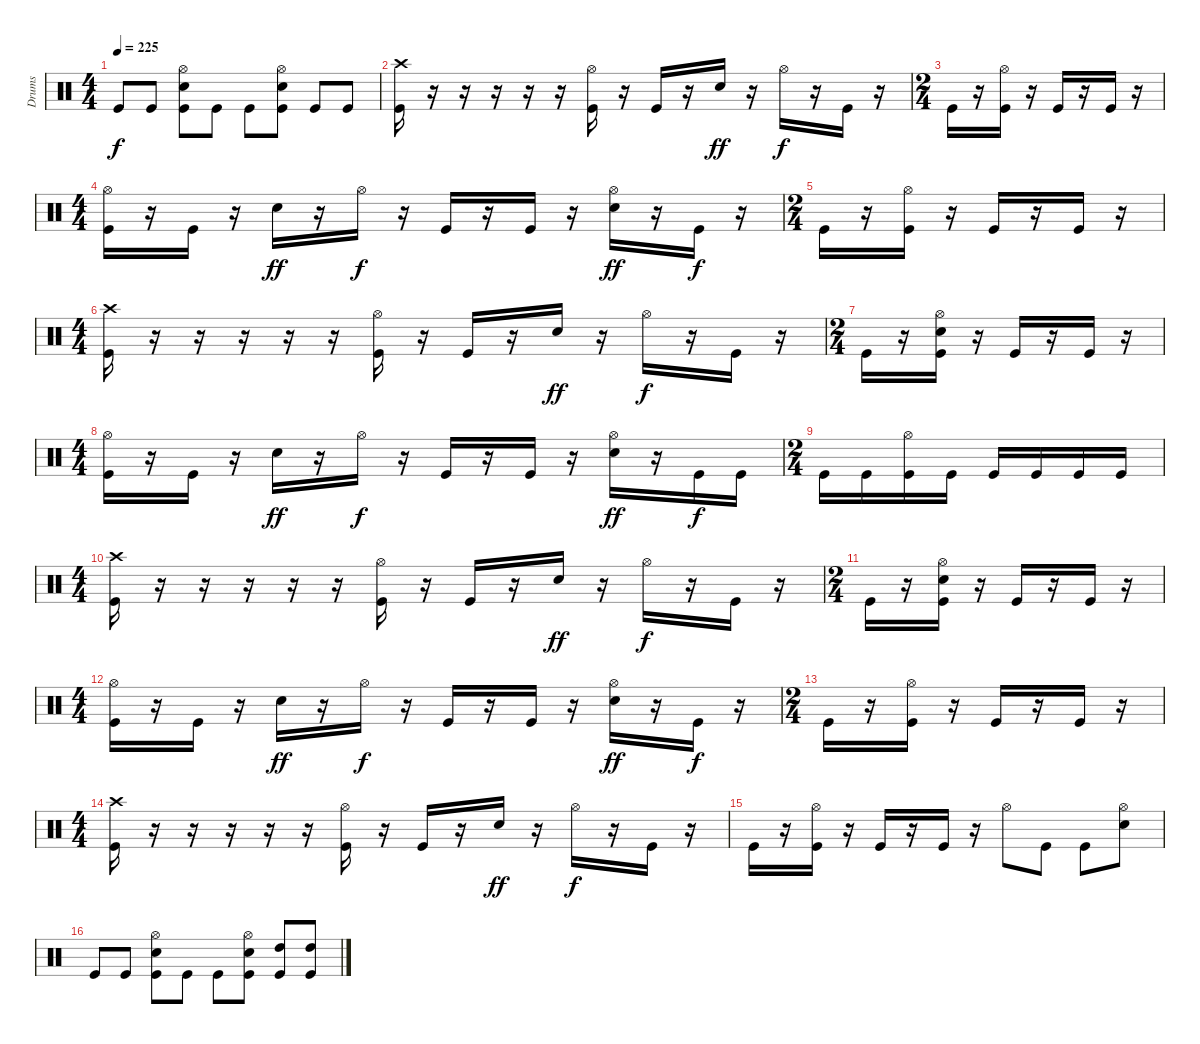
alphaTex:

\track ("Drums" "Drums") {instrument percussion}
\staff {score}
\articulation defaults
\ts (4 4)
\tempo 225
\clef neutral
\ks c "Kick (hit)".8{dy f} "Kick (hit)".8
("Kick (hit)" "Snare (hit) 2" "Hi-Hat (open)").8 "Kick (hit)".8 "Kick (hit)".8 ("Kick (hit)" "Snare (hit) 2" "Hi-Hat (open)").8 "Kick (hit)".8 "Kick (hit)".8 |
("Kick (hit)" "Crash high (hit)").16 r.16 r.16 r.16 r.16 r.16 ("Kick (hit)" "Hi-Hat (open)").16 r.16 "Kick (hit)".16 r.16 "Snare (hit) 2".16{dy ff} r.16 "Hi-Hat (open)".16{dy f} r.16 "Kick (hit)".16 r.16 |
\ts (2 4)
"Kick (hit)".16 r.16 ("Kick (hit)" "Hi-Hat (open)").16 r.16 "Kick (hit)".16 r.16 "Kick (hit)".16 r.16 |
\ts (4 4)
("Kick (hit)" "Hi-Hat (open)").16 r.16 "Kick (hit)".16 r.16 "Snare (hit) 2".16{dy ff} r.16 "Hi-Hat (open)".16{dy f} r.16 "Kick (hit)".16 r.16 "Kick (hit)".16 r.16 ("Snare (hit) 2" "Hi-Hat (open)").16{dy ff} r.16 "Kick (hit)".16{dy f} r.16 |
\ts (2 4)
"Kick (hit)".16 r.16 ("Kick (hit)" "Hi-Hat (open)").16 r.16 "Kick (hit)".16 r.16 "Kick (hit)".16 r.16 |
\ts (4 4)
("Kick (hit)" "Crash high (hit)").16 r.16 r.16 r.16 r.16 r.16 ("Kick (hit)" "Hi-Hat (open)").16 r.16 "Kick (hit)".16 r.16 "Snare (hit) 2".16{dy ff} r.16 "Hi-Hat (open)".16{dy f} r.16 "Kick (hit)".16 r.16 |
\ts (2 4)
"Kick (hit)".16 r.16 ("Kick (hit)" "Snare (hit) 2" "Hi-Hat (open)").16 r.16 "Kick (hit)".16 r.16 "Kick (hit)".16 r.16 |
\ts (4 4)
("Kick (hit)" "Hi-Hat (open)").16 r.16 "Kick (hit)".16 r.16 "Snare (hit) 2".16{dy ff} r.16 "Hi-Hat (open)".16{dy f} r.16 "Kick (hit)".16 r.16 "Kick (hit)".16 r.16 ("Snare (hit) 2" "Hi-Hat (open)").16{dy ff} r.16 "Kick (hit)".16{dy f} "Kick (hit)".16 |
\ts (2 4)
"Kick (hit)".16 "Kick (hit)".16 ("Kick (hit)" "Hi-Hat (open)").16 "Kick (hit)".16 "Kick (hit)".16 "Kick (hit)".16 "Kick (hit)".16 "Kick (hit)".16 |
\ts (4 4)
("Kick (hit)" "Crash high (hit)").16 r.16 r.16 r.16 r.16 r.16 ("Kick (hit)" "Hi-Hat (open)").16 r.16 "Kick (hit)".16 r.16 "Snare (hit) 2".16{dy ff} r.16 "Hi-Hat (open)".16{dy f} r.16 "Kick (hit)".16 r.16 |
\ts (2 4)
"Kick (hit)".16 r.16 ("Kick (hit)" "Snare (hit) 2" "Hi-Hat (open)").16 r.16 "Kick (hit)".16 r.16 "Kick (hit)".16 r.16 |
\ts (4 4)
("Kick (hit)" "Hi-Hat (open)").16 r.16 "Kick (hit)".16 r.16 "Snare (hit) 2".16{dy ff} r.16 "Hi-Hat (open)".16{dy f} r.16 "Kick (hit)".16 r.16 "Kick (hit)".16 r.16 ("Snare (hit) 2" "Hi-Hat (open)").16{dy ff} r.16 "Kick (hit)".16{dy f} r.16 |
\ts (2 4)
"Kick (hit)".16 r.16 ("Kick (hit)" "Hi-Hat (open)").16 r.16 "Kick (hit)".16 r.16 "Kick (hit)".16 r.16 |
\ts (4 4)
("Kick (hit)" "Crash high (hit)").16 r.16 r.16 r.16 r.16 r.16 ("Kick (hit)" "Hi-Hat (open)").16 r.16 "Kick (hit)".16 r.16 "Snare (hit) 2".16{dy ff} r.16 "Hi-Hat (open)".16{dy f} r.16 "Kick (hit)".16 r.16 |
"Kick (hit)".16 r.16 ("Kick (hit)" "Hi-Hat (open)").16 r.16 "Kick (hit)".16 r.16 "Kick (hit)".16 r.16 "Hi-Hat (open)".8 "Kick (hit)".8 "Kick (hit)".8 ("Snare (hit) 2" "Hi-Hat (open)").8 |
"Kick (hit)".8 "Kick (hit)".8 ("Kick (hit)" "Snare (hit) 2" "Hi-Hat (open)").8 "Kick (hit)".8 "Kick (hit)".8 ("Kick (hit)" "Snare (hit) 2" "Hi-Hat (open)").8 ("Kick (hit)" "High Tom (hit)").8 ("Kick (hit)" "High Tom (hit)").8
